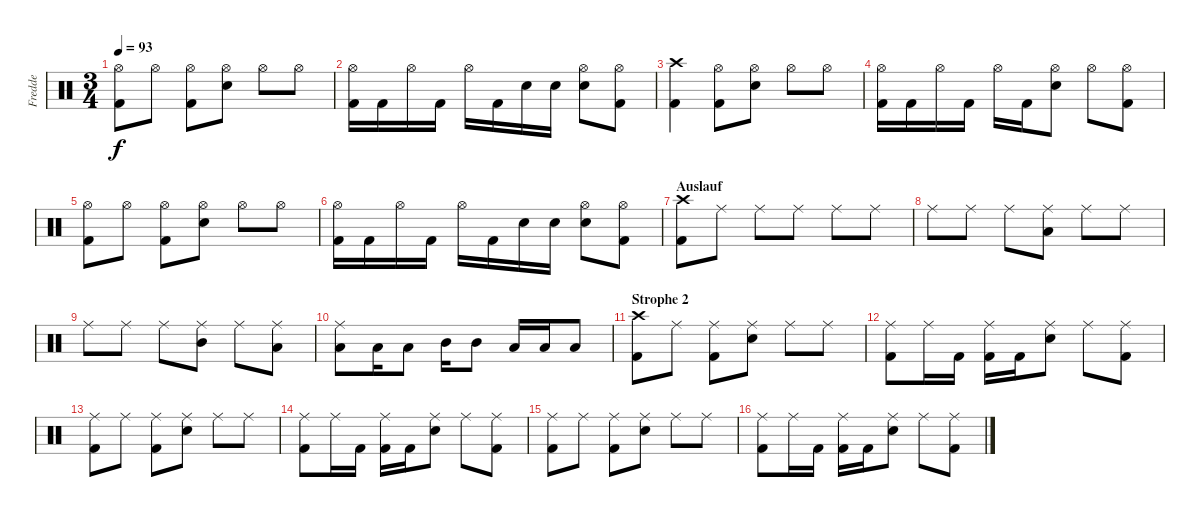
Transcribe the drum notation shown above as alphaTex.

\track ("Fredde" "Fredde") {instrument percussion}
\staff {score}
\articulation defaults
\ts (3 4)
\tempo 93
\clef neutral
\ks c
("Hi-Hat (open)" "Kick (hit) 2").8{dy f} "Hi-Hat (open)".8 ("Hi-Hat (open)" "Kick (hit) 2").8 ("Hi-Hat (open)" "Snare (hit) 2").8 "Hi-Hat (open)".8 "Hi-Hat (open)".8 |
("Hi-Hat (open)" "Kick (hit) 2").16 "Kick (hit) 2".16 "Hi-Hat (open)".16 "Kick (hit) 2".16 "Hi-Hat (open)".16 "Kick (hit) 2".16 "Snare (hit) 2".16 "Snare (hit) 2".16 ("Hi-Hat (open)" "Snare (hit) 2").8 ("Hi-Hat (open)" "Kick (hit) 2").8 |
("Crash high (hit)" "Kick (hit) 2").4 ("Hi-Hat (open)" "Kick (hit) 2").8 ("Hi-Hat (open)" "Snare (hit) 2").8 "Hi-Hat (open)".8 "Hi-Hat (open)".8 |
("Hi-Hat (open)" "Kick (hit) 2").16 "Kick (hit) 2".16 "Hi-Hat (open)".16 "Kick (hit) 2".16 "Hi-Hat (open)".16 "Kick (hit) 2".16 ("Hi-Hat (open)" "Snare (hit) 2").8 "Hi-Hat (open)".8 ("Hi-Hat (open)" "Kick (hit) 2").8 |
("Hi-Hat (open)" "Kick (hit) 2").8 "Hi-Hat (open)".8 ("Hi-Hat (open)" "Kick (hit) 2").8 ("Hi-Hat (open)" "Snare (hit) 2").8 "Hi-Hat (open)".8 "Hi-Hat (open)".8 |
("Hi-Hat (open)" "Kick (hit) 2").16 "Kick (hit) 2".16 "Hi-Hat (open)".16 "Kick (hit) 2".16 "Hi-Hat (open)".16 "Kick (hit) 2".16 "Snare (hit) 2".16 "Snare (hit) 2".16 ("Hi-Hat (open)" "Snare (hit) 2").8 ("Hi-Hat (open)" "Kick (hit) 2").8 |
\section ("" "Auslauf")
("Crash high (hit)" "Kick (hit) 2").8 "Ride (middle)".8 "Ride (middle)".8 "Ride (middle)".8 "Ride (middle)".8 "Ride (middle)".8 |
"Ride (middle)".8 "Ride (middle)".8 "Ride (middle)".8 ("Ride (middle)" "Low Tom (hit)").8 "Ride (middle)".8 "Ride (middle)".8 |
"Ride (middle)".8 "Ride (middle)".8 "Ride (middle)".8 ("Ride (middle)" "Mid Tom (hit)").8 "Ride (middle)".8 ("Ride (middle)" "Low Floor Tom (hit)").8 |
("Ride (middle)" "Low Tom (hit)").8 "Low Tom (hit)".16 "Low Tom (hit)".8 "Mid Tom (hit)".16 "Mid Tom (hit)".8 "Low Tom (hit)".16 "Low Tom (hit)".16 "Low Floor Tom (hit)".8 |
\section ("" "Strophe 2")
("Crash high (hit)" "Kick (hit) 2").8 "Ride (middle)".8 ("Ride (middle)" "Kick (hit) 2").8 ("Ride (middle)" "Snare (hit) 2").8 "Ride (middle)".8 "Ride (middle)".8 |
("Ride (middle)" "Kick (hit) 2").8 "Ride (middle)".16 "Kick (hit) 2".16 ("Ride (middle)" "Kick (hit) 2").16 "Kick (hit) 2".16 ("Ride (middle)" "Snare (hit) 2").8 "Ride (middle)".8 ("Ride (middle)" "Kick (hit) 2").8 |
("Ride (middle)" "Kick (hit) 2").8 "Ride (middle)".8 ("Ride (middle)" "Kick (hit) 2").8 ("Ride (middle)" "Snare (hit) 2").8 "Ride (middle)".8 "Ride (middle)".8 |
("Ride (middle)" "Kick (hit) 2").8 "Ride (middle)".16 "Kick (hit) 2".16 ("Ride (middle)" "Kick (hit) 2").16 "Kick (hit) 2".16 ("Ride (middle)" "Snare (hit) 2").8 "Ride (middle)".8 ("Ride (middle)" "Kick (hit) 2").8 |
("Ride (middle)" "Kick (hit) 2").8 "Ride (middle)".8 ("Ride (middle)" "Kick (hit) 2").8 ("Ride (middle)" "Snare (hit) 2").8 "Ride (middle)".8 "Ride (middle)".8 |
("Ride (middle)" "Kick (hit) 2").8 "Ride (middle)".16 "Kick (hit) 2".16 ("Ride (middle)" "Kick (hit) 2").16 "Kick (hit) 2".16 ("Ride (middle)" "Snare (hit) 2").8 "Ride (middle)".8 ("Ride (middle)" "Kick (hit) 2").8
